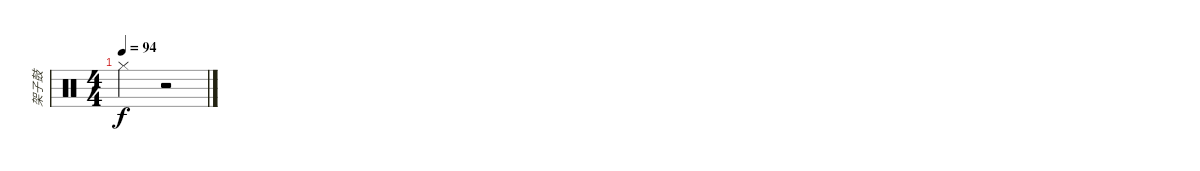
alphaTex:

\track ("架子鼓" "架子鼓") {instrument percussion}
\staff {score}
\articulation defaults
\ts (4 4)
\tempo 94
\clef neutral
\ks c "Hi-Hat (closed)".2{dy f}
r.2
